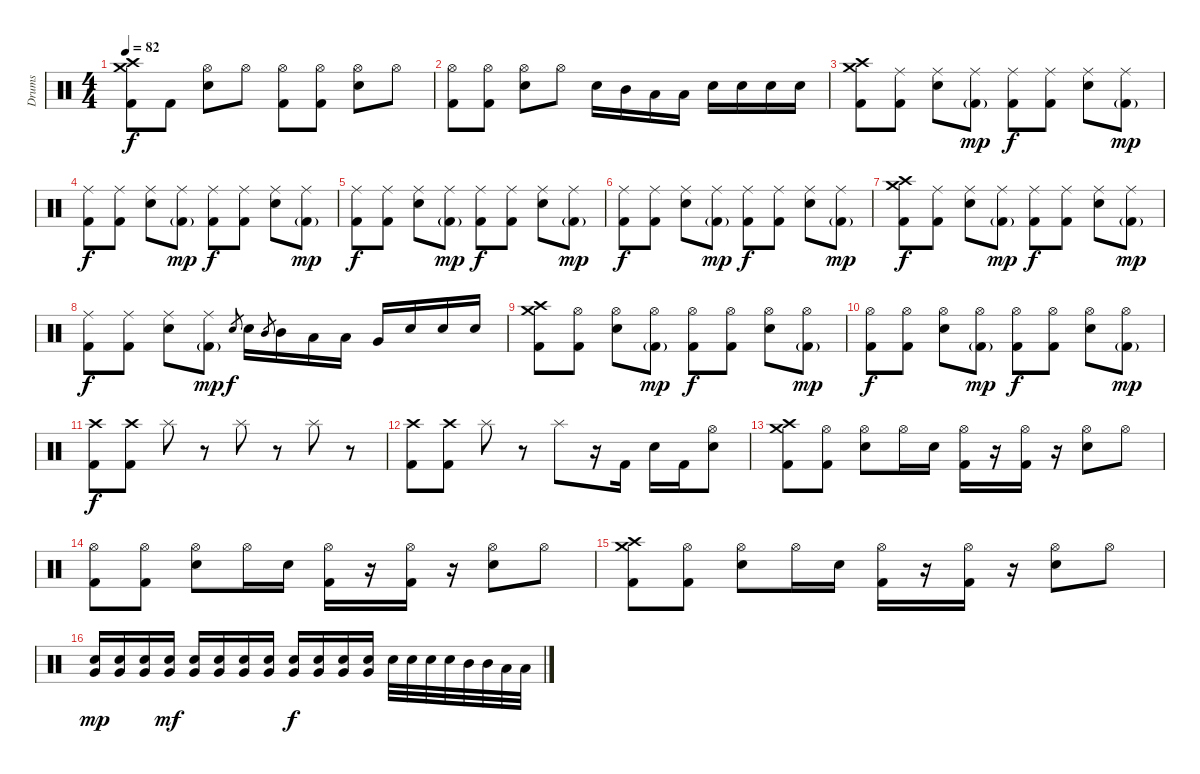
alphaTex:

\track ("Drums" "Drums") {instrument percussion}
\staff {score}
\articulation defaults
\ts (4 4)
\tempo 82
\clef neutral
\ks c
("Crash high (hit)" "Crash medium (hit)" "Kick (hit) 2").8{dy f} "Kick (hit) 2".8 ("Hi-Hat (open)" "Electric Snare (hit)").8 "Hi-Hat (open)".8 ("Hi-Hat (open)" "Kick (hit) 2").8 ("Hi-Hat (open)" "Kick (hit) 2").8 ("Hi-Hat (open)" "Electric Snare (hit)").8 "Hi-Hat (open)".8 |
("Hi-Hat (open)" "Kick (hit) 2").8 ("Hi-Hat (open)" "Kick (hit) 2").8 ("Hi-Hat (open)" "Electric Snare (hit)").8 "Hi-Hat (open)".8 "Electric Snare (hit)".16 "Mid Tom (hit)".16 "Low Tom (hit)".16 "Low Tom (hit)".16 "Electric Snare (hit)".16 "Electric Snare (hit)".16 "Electric Snare (hit)".16 "Electric Snare (hit)".16 |
("Crash high (hit)" "Crash medium (hit)" "Kick (hit) 2").8 ("Ride (middle)" "Kick (hit) 2").8 ("Ride (middle)" "Electric Snare (hit)").8 ("Ride (middle)" "Kick (hit) 2"{g}).8{dy mp} ("Ride (middle)" "Kick (hit) 2").8{dy f} ("Ride (middle)" "Kick (hit) 2").8 ("Ride (middle)" "Electric Snare (hit)").8 ("Ride (middle)" "Kick (hit) 2"{g}).8{dy mp} |
("Ride (middle)" "Kick (hit) 2").8{dy f} ("Ride (middle)" "Kick (hit) 2").8 ("Ride (middle)" "Electric Snare (hit)").8 ("Ride (middle)" "Kick (hit) 2"{g}).8{dy mp} ("Ride (middle)" "Kick (hit) 2").8{dy f} ("Ride (middle)" "Kick (hit) 2").8 ("Ride (middle)" "Electric Snare (hit)").8 ("Ride (middle)" "Kick (hit) 2"{g}).8{dy mp} |
("Ride (middle)" "Kick (hit) 2").8{dy f} ("Ride (middle)" "Kick (hit) 2").8 ("Ride (middle)" "Electric Snare (hit)").8 ("Ride (middle)" "Kick (hit) 2"{g}).8{dy mp} ("Ride (middle)" "Kick (hit) 2").8{dy f} ("Ride (middle)" "Kick (hit) 2").8 ("Ride (middle)" "Electric Snare (hit)").8 ("Ride (middle)" "Kick (hit) 2"{g}).8{dy mp} |
("Ride (middle)" "Kick (hit) 2").8{dy f} ("Ride (middle)" "Kick (hit) 2").8 ("Ride (middle)" "Electric Snare (hit)").8 ("Ride (middle)" "Kick (hit) 2"{g}).8{dy mp} ("Ride (middle)" "Kick (hit) 2").8{dy f} ("Ride (middle)" "Kick (hit) 2").8 ("Ride (middle)" "Electric Snare (hit)").8 ("Ride (middle)" "Kick (hit) 2"{g}).8{dy mp} |
("Crash high (hit)" "Crash medium (hit)" "Kick (hit) 2").8{dy f} ("Ride (middle)" "Kick (hit) 2").8 ("Ride (middle)" "Electric Snare (hit)").8 ("Ride (middle)" "Kick (hit) 2"{g}).8{dy mp} ("Ride (middle)" "Kick (hit) 2").8{dy f} ("Ride (middle)" "Kick (hit) 2").8 ("Ride (middle)" "Electric Snare (hit)").8 ("Ride (middle)" "Kick (hit) 2"{g}).8{dy mp} |
("Ride (middle)" "Kick (hit) 2").8{dy f} ("Ride (middle)" "Kick (hit) 2").8 ("Ride (middle)" "Electric Snare (hit)").8 ("Ride (middle)" "Kick (hit) 2"{g}).8{dy mp} "Electric Snare (hit)".8{gr dy f} "Electric Snare (hit)".16 "Mid Tom (hit)".8{gr} "Mid Tom (hit)".16 "Low Tom (hit)".16 "Low Tom (hit)".16 "Very Low Tom (hit)".16 "Electric Snare (hit)".16 "Electric Snare (hit)".16 "Electric Snare (hit)".16 |
("Crash high (hit)" "Crash medium (hit)" "Kick (hit) 2").8 ("Hi-Hat (open)" "Kick (hit) 2").8 ("Hi-Hat (open)" "Electric Snare (hit)").8 ("Hi-Hat (open)" "Kick (hit) 2"{g}).8{dy mp} ("Hi-Hat (open)" "Kick (hit) 2").8{dy f} ("Hi-Hat (open)" "Kick (hit) 2").8 ("Hi-Hat (open)" "Electric Snare (hit)").8 ("Hi-Hat (open)" "Kick (hit) 2"{g}).8{dy mp} |
("Hi-Hat (open)" "Kick (hit) 2").8{dy f} ("Hi-Hat (open)" "Kick (hit) 2").8 ("Hi-Hat (open)" "Electric Snare (hit)").8 ("Hi-Hat (open)" "Kick (hit) 2"{g}).8{dy mp} ("Hi-Hat (open)" "Kick (hit) 2").8{dy f} ("Hi-Hat (open)" "Kick (hit) 2").8 ("Hi-Hat (open)" "Electric Snare (hit)").8 ("Hi-Hat (open)" "Kick (hit) 2"{g}).8{dy mp} |
("Crash high (hit)" "Kick (hit) 2").8{dy f} ("Crash high (hit)" "Kick (hit) 2").8 "Splash (hit)".8 r.8 "Splash (hit)".8 r.8 "Splash (hit)".8 r.8 |
("Crash high (hit)" "Kick (hit) 2").8 ("Crash high (hit)" "Kick (hit) 2").8 "Splash (hit)".8 r.8 "Splash (hit)".8 r.16 "Kick (hit) 2".16 "Electric Snare (hit)".16 "Kick (hit) 2".16 ("Hi-Hat (open)" "Electric Snare (hit)").8 |
("Crash high (hit)" "Crash medium (hit)" "Kick (hit) 2").8 ("Hi-Hat (open)" "Kick (hit) 2").8 ("Hi-Hat (open)" "Electric Snare (hit)").8 "Hi-Hat (open)".16 "Electric Snare (hit)".16 ("Hi-Hat (open)" "Kick (hit) 2").16 r.16 ("Hi-Hat (open)" "Kick (hit) 2").16 r.16 ("Hi-Hat (open)" "Electric Snare (hit)").8 "Hi-Hat (open)".8 |
("Hi-Hat (open)" "Kick (hit) 2").8 ("Hi-Hat (open)" "Kick (hit) 2").8 ("Hi-Hat (open)" "Electric Snare (hit)").8 "Hi-Hat (open)".16 "Electric Snare (hit)".16 ("Hi-Hat (open)" "Kick (hit) 2").16 r.16 ("Hi-Hat (open)" "Kick (hit) 2").16 r.16 ("Hi-Hat (open)" "Electric Snare (hit)").8 "Hi-Hat (open)".8 |
("Crash high (hit)" "Crash medium (hit)" "Kick (hit) 2").8 ("Hi-Hat (open)" "Kick (hit) 2").8 ("Hi-Hat (open)" "Electric Snare (hit)").8 "Hi-Hat (open)".16 "Electric Snare (hit)".16 ("Hi-Hat (open)" "Kick (hit) 2").16 r.16 ("Hi-Hat (open)" "Kick (hit) 2").16 r.16 ("Hi-Hat (open)" "Electric Snare (hit)").8 "Hi-Hat (open)".8 |
("Very Low Tom (hit)" "Electric Snare (hit)").16{dy mp} ("Very Low Tom (hit)" "Electric Snare (hit)").16 ("Very Low Tom (hit)" "Electric Snare (hit)").16 ("Very Low Tom (hit)" "Electric Snare (hit)").16{dy mf} ("Very Low Tom (hit)" "Electric Snare (hit)").16 ("Very Low Tom (hit)" "Electric Snare (hit)").16 ("Very Low Tom (hit)" "Electric Snare (hit)").16 ("Very Low Tom (hit)" "Electric Snare (hit)").16 ("Very Low Tom (hit)" "Electric Snare (hit)").16{dy f} ("Very Low Tom (hit)" "Electric Snare (hit)").16 ("Very Low Tom (hit)" "Electric Snare (hit)").16 ("Very Low Tom (hit)" "Electric Snare (hit)").16 "Electric Snare (hit)".32 "Electric Snare (hit)".32 "Electric Snare (hit)".32 "Electric Snare (hit)".32 "Mid Tom (hit)".32 "Mid Tom (hit)".32 "Low Tom (hit)".32 "Low Tom (hit)".32
